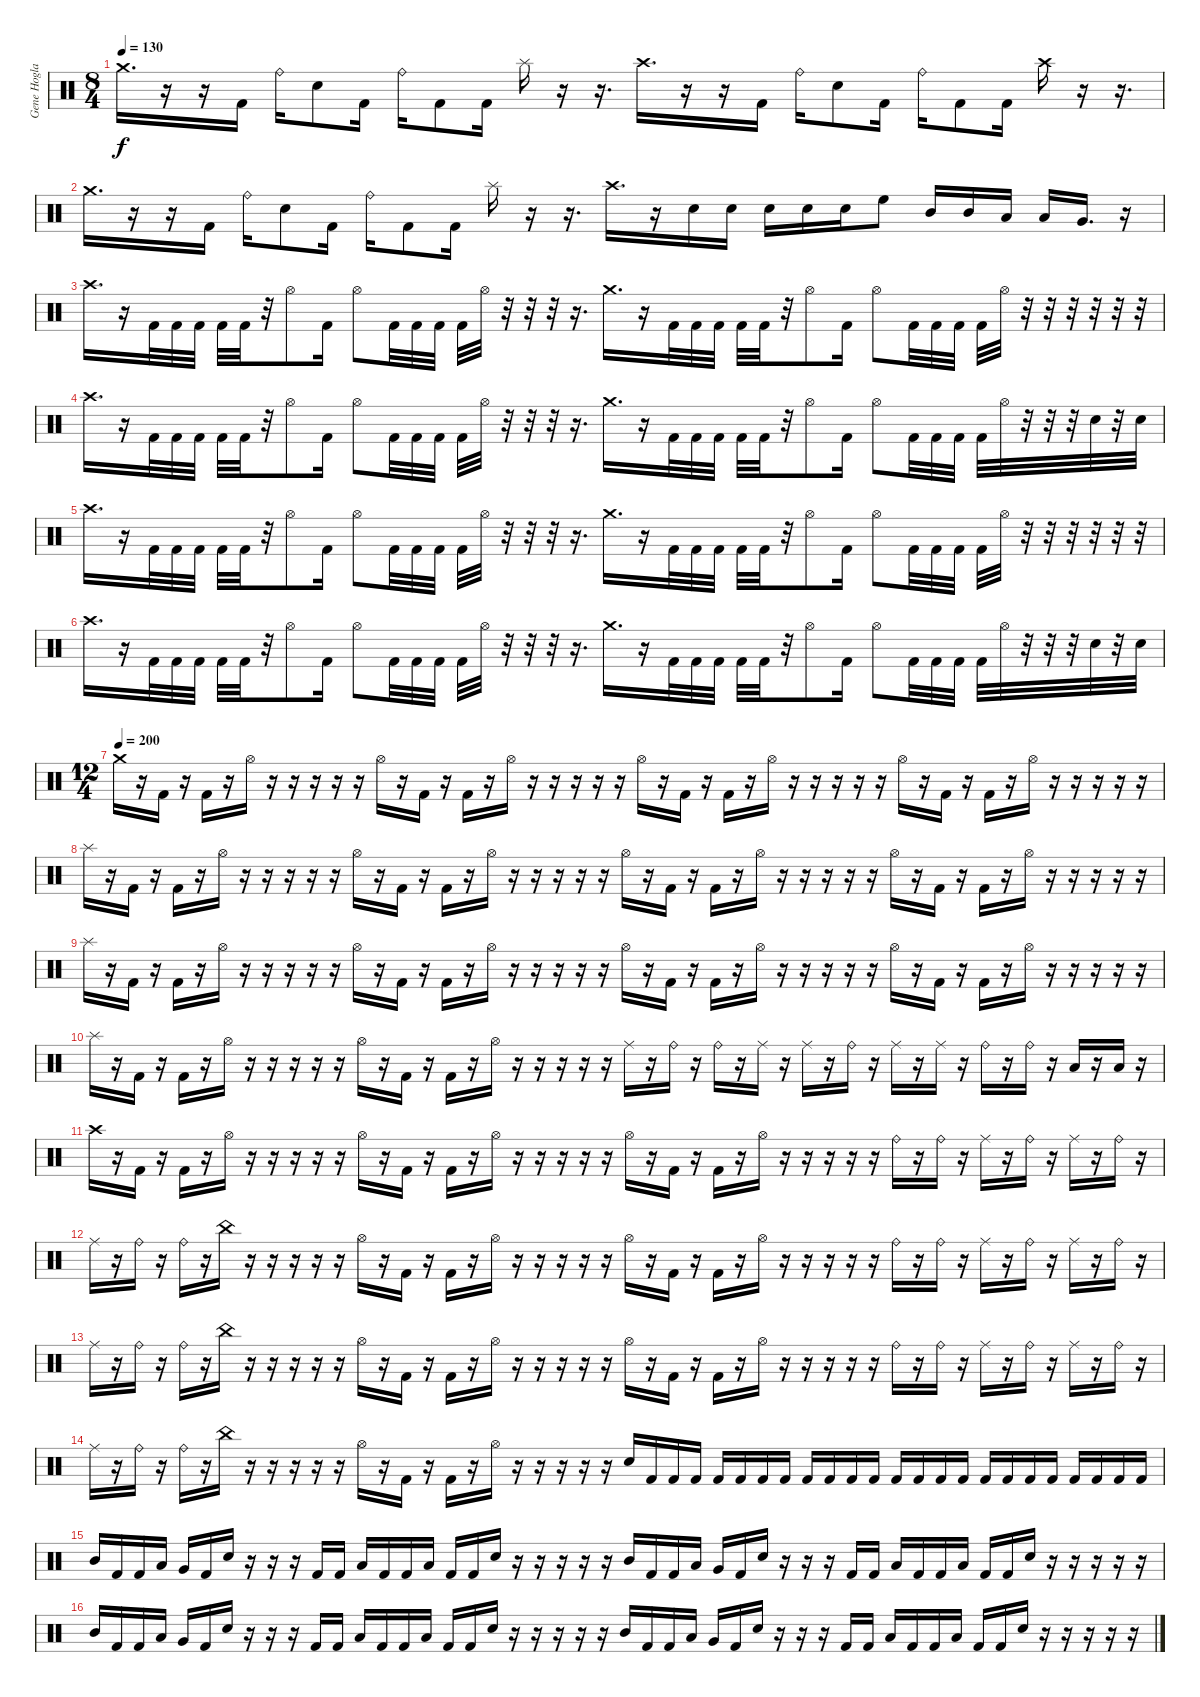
\track ("Gene Hoglan" "Gene Hogla") {instrument percussion}
\staff {score}
\articulation defaults
\ts (8 4)
\tempo 130
\clef neutral
\ks c "Crash medium (hit)".16{d dy f}
r.16 r.16 "Kick (hit) 2".16 "Ride (bell)".16 "Snare (hit) 2".8 "Kick (hit) 2".16 "Ride (bell)".16 "Kick (hit) 2".8 "Kick (hit) 2".16 "Splash (hit)".16 r.16 r.16{d} "Crash high (hit)".16{d} r.16 r.16 "Kick (hit) 2".16 "Ride (bell)".16 "Snare (hit) 2".8 "Kick (hit) 2".16 "Ride (bell)".16 "Kick (hit) 2".8 "Kick (hit) 2".16 "Crash high (hit)".16 r.16 r.16{d} |
"Crash medium (hit)".16{d} r.16 r.16 "Kick (hit) 2".16 "Ride (bell)".16 "Snare (hit) 2".8 "Kick (hit) 2".16 "Ride (bell)".16 "Kick (hit) 2".8 "Kick (hit) 2".16 "Splash (hit)".16 r.16 r.16{d} "Crash high (hit)".16{d} r.16 "Snare (hit) 2".16 "Snare (hit) 2".16 "Snare (hit) 2".16 "Snare (hit) 2".16 "Snare (hit) 2".16 "High Floor Tom (hit)".8 "Mid Tom (hit)".16 "Mid Tom (hit)".16 "Low Tom (hit)".16 "Low Tom (hit)".16 "Very Low Tom (hit)".16{d} r.16 |
"Crash high (hit)".16{d} r.16 "Kick (hit) 2".32 "Kick (hit) 2".32 "Kick (hit) 2".32 "Kick (hit) 2".32 "Kick (hit) 2".32 r.32 "Hi-Hat (open)".8 "Kick (hit) 2".16 "Hi-Hat (open)".8 "Kick (hit) 2".32 "Kick (hit) 2".32 "Kick (hit) 2".32 "Kick (hit) 2".32 "Hi-Hat (open)".32 r.32 r.32 r.32 r.16{d} "Crash medium (hit)".16{d} r.16 "Kick (hit) 2".32 "Kick (hit) 2".32 "Kick (hit) 2".32 "Kick (hit) 2".32 "Kick (hit) 2".32 r.32 "Hi-Hat (open)".8 "Kick (hit) 2".16 "Hi-Hat (open)".8 "Kick (hit) 2".32 "Kick (hit) 2".32 "Kick (hit) 2".32 "Kick (hit) 2".32 "Hi-Hat (open)".32 r.32 r.32 r.32 r.32 r.32 r.32 |
"Crash high (hit)".16{d} r.16 "Kick (hit) 2".32 "Kick (hit) 2".32 "Kick (hit) 2".32 "Kick (hit) 2".32 "Kick (hit) 2".32 r.32 "Hi-Hat (open)".8 "Kick (hit) 2".16 "Hi-Hat (open)".8 "Kick (hit) 2".32 "Kick (hit) 2".32 "Kick (hit) 2".32 "Kick (hit) 2".32 "Hi-Hat (open)".32 r.32 r.32 r.32 r.16{d} "Crash medium (hit)".16{d} r.16 "Kick (hit) 2".32 "Kick (hit) 2".32 "Kick (hit) 2".32 "Kick (hit) 2".32 "Kick (hit) 2".32 r.32 "Hi-Hat (open)".8 "Kick (hit) 2".16 "Hi-Hat (open)".8 "Kick (hit) 2".32 "Kick (hit) 2".32 "Kick (hit) 2".32 "Kick (hit) 2".32 "Hi-Hat (open)".32 r.32 r.32 r.32 "Snare (hit) 2".32 r.32 "Snare (hit) 2".32 |
"Crash high (hit)".16{d} r.16 "Kick (hit) 2".32 "Kick (hit) 2".32 "Kick (hit) 2".32 "Kick (hit) 2".32 "Kick (hit) 2".32 r.32 "Hi-Hat (open)".8 "Kick (hit) 2".16 "Hi-Hat (open)".8 "Kick (hit) 2".32 "Kick (hit) 2".32 "Kick (hit) 2".32 "Kick (hit) 2".32 "Hi-Hat (open)".32 r.32 r.32 r.32 r.16{d} "Crash medium (hit)".16{d} r.16 "Kick (hit) 2".32 "Kick (hit) 2".32 "Kick (hit) 2".32 "Kick (hit) 2".32 "Kick (hit) 2".32 r.32 "Hi-Hat (open)".8 "Kick (hit) 2".16 "Hi-Hat (open)".8 "Kick (hit) 2".32 "Kick (hit) 2".32 "Kick (hit) 2".32 "Kick (hit) 2".32 "Hi-Hat (open)".32 r.32 r.32 r.32 r.32 r.32 r.32 |
"Crash high (hit)".16{d} r.16 "Kick (hit) 2".32 "Kick (hit) 2".32 "Kick (hit) 2".32 "Kick (hit) 2".32 "Kick (hit) 2".32 r.32 "Hi-Hat (open)".8 "Kick (hit) 2".16 "Hi-Hat (open)".8 "Kick (hit) 2".32 "Kick (hit) 2".32 "Kick (hit) 2".32 "Kick (hit) 2".32 "Hi-Hat (open)".32 r.32 r.32 r.32 r.16{d} "Crash medium (hit)".16{d} r.16 "Kick (hit) 2".32 "Kick (hit) 2".32 "Kick (hit) 2".32 "Kick (hit) 2".32 "Kick (hit) 2".32 r.32 "Hi-Hat (open)".8 "Kick (hit) 2".16 "Hi-Hat (open)".8 "Kick (hit) 2".32 "Kick (hit) 2".32 "Kick (hit) 2".32 "Kick (hit) 2".32 "Hi-Hat (open)".32 r.32 r.32 r.32 "Snare (hit) 2".32 r.32 "Snare (hit) 2".32 |
\ts (12 4)
\tempo (200)
"Crash medium (hit)".16 r.16 "Kick (hit) 2".16 r.16 "Kick (hit) 2".16 r.16 "Hi-Hat (open)".16 r.16 r.16 r.16 r.16 r.16 "Hi-Hat (open)".16 r.16 "Kick (hit) 2".16 r.16 "Kick (hit) 2".16 r.16 "Hi-Hat (open)".16 r.16 r.16 r.16 r.16 r.16 "Hi-Hat (open)".16 r.16 "Kick (hit) 2".16 r.16 "Kick (hit) 2".16 r.16 "Hi-Hat (open)".16 r.16 r.16 r.16 r.16 r.16 "Hi-Hat (open)".16 r.16 "Kick (hit) 2".16 r.16 "Kick (hit) 2".16 r.16 "Hi-Hat (open)".16 r.16 r.16 r.16 r.16 r.16 |
"Splash (hit)".16 r.16 "Kick (hit) 2".16 r.16 "Kick (hit) 2".16 r.16 "Hi-Hat (open)".16 r.16 r.16 r.16 r.16 r.16 "Hi-Hat (open)".16 r.16 "Kick (hit) 2".16 r.16 "Kick (hit) 2".16 r.16 "Hi-Hat (open)".16 r.16 r.16 r.16 r.16 r.16 "Hi-Hat (open)".16 r.16 "Kick (hit) 2".16 r.16 "Kick (hit) 2".16 r.16 "Hi-Hat (open)".16 r.16 r.16 r.16 r.16 r.16 "Hi-Hat (open)".16 r.16 "Kick (hit) 2".16 r.16 "Kick (hit) 2".16 r.16 "Hi-Hat (open)".16 r.16 r.16 r.16 r.16 r.16 |
"Splash (hit)".16 r.16 "Kick (hit) 2".16 r.16 "Kick (hit) 2".16 r.16 "Hi-Hat (open)".16 r.16 r.16 r.16 r.16 r.16 "Hi-Hat (open)".16 r.16 "Kick (hit) 2".16 r.16 "Kick (hit) 2".16 r.16 "Hi-Hat (open)".16 r.16 r.16 r.16 r.16 r.16 "Hi-Hat (open)".16 r.16 "Kick (hit) 2".16 r.16 "Kick (hit) 2".16 r.16 "Hi-Hat (open)".16 r.16 r.16 r.16 r.16 r.16 "Hi-Hat (open)".16 r.16 "Kick (hit) 2".16 r.16 "Kick (hit) 2".16 r.16 "Hi-Hat (open)".16 r.16 r.16 r.16 r.16 r.16 |
"Splash (hit)".16 r.16 "Kick (hit) 2".16 r.16 "Kick (hit) 2".16 r.16 "Hi-Hat (open)".16 r.16 r.16 r.16 r.16 r.16 "Hi-Hat (open)".16 r.16 "Kick (hit) 2".16 r.16 "Kick (hit) 2".16 r.16 "Hi-Hat (open)".16 r.16 r.16 r.16 r.16 r.16 "Ride (middle)".16 r.16 "Ride (bell)".16 r.16 "Ride (bell)".16 r.16 "Ride (middle)".16 r.16 "Ride (middle)".16 r.16 "Ride (bell)".16 r.16 "Ride (middle)".16 r.16 "Ride (middle)".16 r.16 "Ride (bell)".16 r.16 "Ride (bell)".16 r.16 "Low Tom (hit)".16 r.16 "Low Tom (hit)".16 r.16 |
"Crash high (hit)".16 r.16 "Kick (hit) 2".16 r.16 "Kick (hit) 2".16 r.16 "Hi-Hat (open)".16 r.16 r.16 r.16 r.16 r.16 "Hi-Hat (open)".16 r.16 "Kick (hit) 2".16 r.16 "Kick (hit) 2".16 r.16 "Hi-Hat (open)".16 r.16 r.16 r.16 r.16 r.16 "Hi-Hat (open)".16 r.16 "Kick (hit) 2".16 r.16 "Kick (hit) 2".16 r.16 "Hi-Hat (open)".16 r.16 r.16 r.16 r.16 r.16 "Ride (bell)".16 r.16 "Ride (bell)".16 r.16 "Ride (middle)".16 r.16 "Ride (bell)".16 r.16 "Ride (middle)".16 r.16 "Ride (bell)".16 r.16 |
"Ride (middle)".16 r.16 "Ride (bell)".16 r.16 "Ride (bell)".16 r.16 "China (hit)".16 r.16 r.16 r.16 r.16 r.16 "Hi-Hat (open)".16 r.16 "Kick (hit) 2".16 r.16 "Kick (hit) 2".16 r.16 "Hi-Hat (open)".16 r.16 r.16 r.16 r.16 r.16 "Hi-Hat (open)".16 r.16 "Kick (hit) 2".16 r.16 "Kick (hit) 2".16 r.16 "Hi-Hat (open)".16 r.16 r.16 r.16 r.16 r.16 "Ride (bell)".16 r.16 "Ride (bell)".16 r.16 "Ride (middle)".16 r.16 "Ride (bell)".16 r.16 "Ride (middle)".16 r.16 "Ride (bell)".16 r.16 |
"Ride (middle)".16 r.16 "Ride (bell)".16 r.16 "Ride (bell)".16 r.16 "China (hit)".16 r.16 r.16 r.16 r.16 r.16 "Hi-Hat (open)".16 r.16 "Kick (hit) 2".16 r.16 "Kick (hit) 2".16 r.16 "Hi-Hat (open)".16 r.16 r.16 r.16 r.16 r.16 "Hi-Hat (open)".16 r.16 "Kick (hit) 2".16 r.16 "Kick (hit) 2".16 r.16 "Hi-Hat (open)".16 r.16 r.16 r.16 r.16 r.16 "Ride (bell)".16 r.16 "Ride (bell)".16 r.16 "Ride (middle)".16 r.16 "Ride (bell)".16 r.16 "Ride (middle)".16 r.16 "Ride (bell)".16 r.16 |
"Ride (middle)".16 r.16 "Ride (bell)".16 r.16 "Ride (bell)".16 r.16 "China (hit)".16 r.16 r.16 r.16 r.16 r.16 "Hi-Hat (open)".16 r.16 "Kick (hit) 2".16 r.16 "Kick (hit) 2".16 r.16 "Hi-Hat (open)".16 r.16 r.16 r.16 r.16 r.16 "Snare (hit) 2".16 "Kick (hit) 2".16 "Kick (hit) 2".16 "Kick (hit) 2".16 "Kick (hit) 2".16 "Kick (hit) 2".16 "Kick (hit) 2".16 "Kick (hit) 2".16 "Kick (hit) 2".16 "Kick (hit) 2".16 "Kick (hit) 2".16 "Kick (hit) 2".16 "Kick (hit) 2".16 "Kick (hit) 2".16 "Kick (hit) 2".16 "Kick (hit) 2".16 "Kick (hit) 2".16 "Kick (hit) 2".16 "Kick (hit) 2".16 "Kick (hit) 2".16 "Kick (hit) 2".16 "Kick (hit) 2".16 "Kick (hit) 2".16 "Kick (hit) 2".16 |
"Mid Tom (hit)".16 "Kick (hit) 2".16 "Kick (hit) 2".16 "Low Tom (hit)".16 "Very Low Tom (hit)".16 "Kick (hit) 2".16 "Snare (hit) 2".16 r.16 r.16 r.16 "Kick (hit) 2".16 "Kick (hit) 2".16 "Low Tom (hit)".16 "Kick (hit) 2".16 "Kick (hit) 2".16 "Low Tom (hit)".16 "Kick (hit) 2".16 "Kick (hit) 2".16 "Snare (hit) 2".16 r.16 r.16 r.16 r.16 r.16 "Mid Tom (hit)".16 "Kick (hit) 2".16 "Kick (hit) 2".16 "Low Tom (hit)".16 "Very Low Tom (hit)".16 "Kick (hit) 2".16 "Snare (hit) 2".16 r.16 r.16 r.16 "Kick (hit) 2".16 "Kick (hit) 2".16 "Low Tom (hit)".16 "Kick (hit) 2".16 "Kick (hit) 2".16 "Low Tom (hit)".16 "Kick (hit) 2".16 "Kick (hit) 2".16 "Snare (hit) 2".16 r.16 r.16 r.16 r.16 r.16 |
"Mid Tom (hit)".16 "Kick (hit) 2".16 "Kick (hit) 2".16 "Low Tom (hit)".16 "Very Low Tom (hit)".16 "Kick (hit) 2".16 "Snare (hit) 2".16 r.16 r.16 r.16 "Kick (hit) 2".16 "Kick (hit) 2".16 "Low Tom (hit)".16 "Kick (hit) 2".16 "Kick (hit) 2".16 "Low Tom (hit)".16 "Kick (hit) 2".16 "Kick (hit) 2".16 "Snare (hit) 2".16 r.16 r.16 r.16 r.16 r.16 "Mid Tom (hit)".16 "Kick (hit) 2".16 "Kick (hit) 2".16 "Low Tom (hit)".16 "Very Low Tom (hit)".16 "Kick (hit) 2".16 "Snare (hit) 2".16 r.16 r.16 r.16 "Kick (hit) 2".16 "Kick (hit) 2".16 "Low Tom (hit)".16 "Kick (hit) 2".16 "Kick (hit) 2".16 "Low Tom (hit)".16 "Kick (hit) 2".16 "Kick (hit) 2".16 "Snare (hit) 2".16 r.16 r.16 r.16 r.16 r.16
